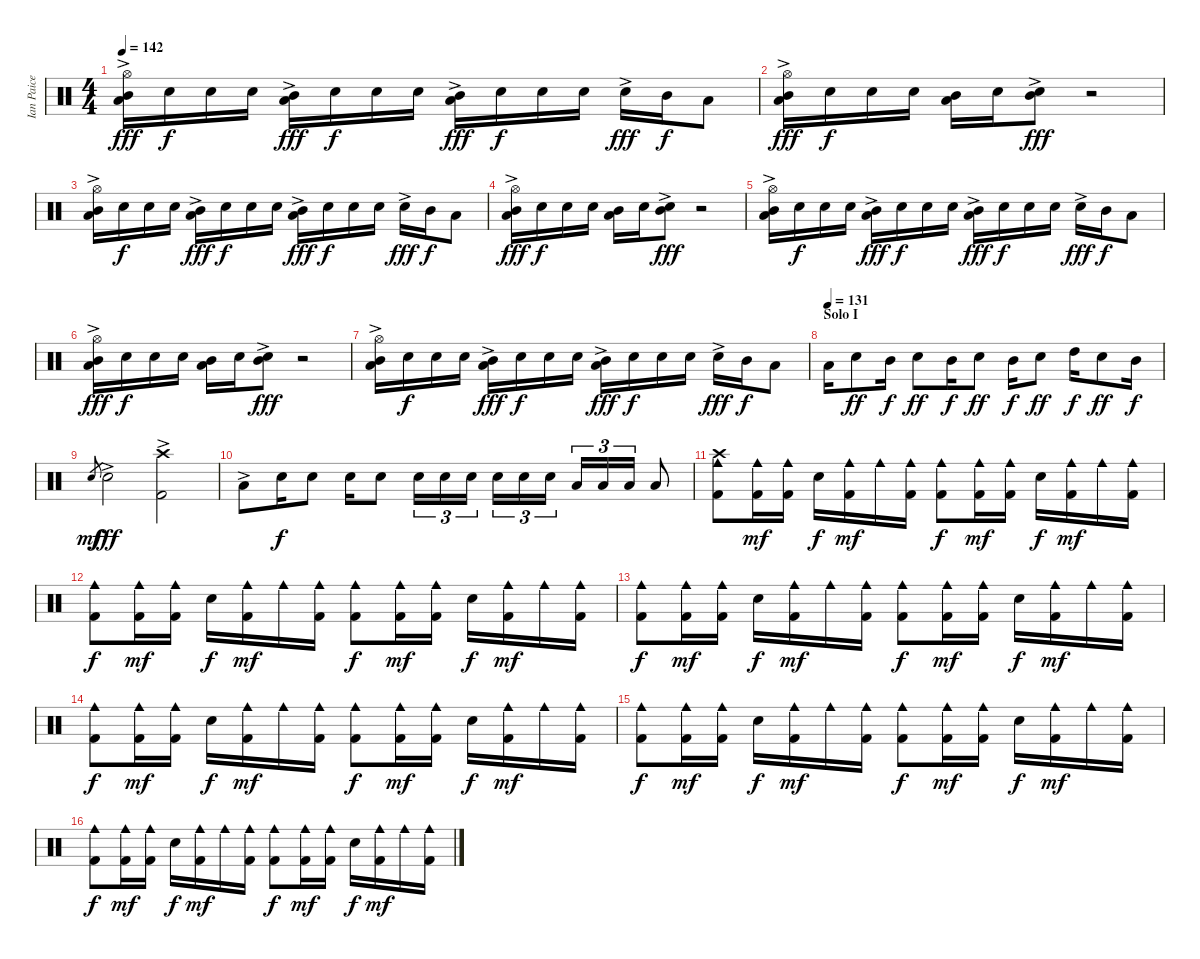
\track ("Ian Paice" "Ian Paice") {instrument percussion}
\staff {score}
\articulation defaults
\ts (4 4)
\tempo 142
\clef neutral
\ks c
("Hi-Hat (open)" "Mid Tom (hit)"{ac} "Low Floor Tom (hit)").16{dy fff} "Snare (hit) 2".16{dy f} "Snare (hit) 2".16 "Snare (hit) 2".16 ("Mid Tom (hit)"{ac} "Low Floor Tom (hit)").16{dy fff} "Snare (hit) 2".16{dy f} "Snare (hit) 2".16 "Snare (hit) 2".16 ("Mid Tom (hit)"{ac} "Low Floor Tom (hit)").16{dy fff} "Snare (hit) 2".16{dy f} "Snare (hit) 2".16 "Snare (hit) 2".16 "Electric Snare (hit)"{ac}.16{dy fff} "Mid Tom (hit)".16{dy f} "Low Tom (hit)".8 |
("Hi-Hat (open)" "Mid Tom (hit)"{ac} "Low Floor Tom (hit)").16{dy fff} "Snare (hit) 2".16{dy f} "Snare (hit) 2".16 "Snare (hit) 2".16 ("Mid Tom (hit)" "Low Floor Tom (hit)").16 "Snare (hit) 2".16 ("Mid Tom (hit)"{ac} "Electric Snare (hit)").8{dy fff} r.2 |
("Hi-Hat (open)" "Mid Tom (hit)"{ac} "Low Floor Tom (hit)").16 "Snare (hit) 2".16{dy f} "Snare (hit) 2".16 "Snare (hit) 2".16 ("Mid Tom (hit)"{ac} "Low Floor Tom (hit)").16{dy fff} "Snare (hit) 2".16{dy f} "Snare (hit) 2".16 "Snare (hit) 2".16 ("Mid Tom (hit)"{ac} "Low Floor Tom (hit)").16{dy fff} "Snare (hit) 2".16{dy f} "Snare (hit) 2".16 "Snare (hit) 2".16 "Electric Snare (hit)"{ac}.16{dy fff} "Mid Tom (hit)".16{dy f} "Low Tom (hit)".8 |
("Hi-Hat (open)" "Mid Tom (hit)"{ac} "Low Floor Tom (hit)").16{dy fff} "Snare (hit) 2".16{dy f} "Snare (hit) 2".16 "Snare (hit) 2".16 ("Mid Tom (hit)" "Low Floor Tom (hit)").16 "Snare (hit) 2".16 ("Mid Tom (hit)"{ac} "Electric Snare (hit)").8{dy fff} r.2 |
("Hi-Hat (open)" "Mid Tom (hit)"{ac} "Low Floor Tom (hit)").16 "Snare (hit) 2".16{dy f} "Snare (hit) 2".16 "Snare (hit) 2".16 ("Mid Tom (hit)"{ac} "Low Floor Tom (hit)").16{dy fff} "Snare (hit) 2".16{dy f} "Snare (hit) 2".16 "Snare (hit) 2".16 ("Mid Tom (hit)"{ac} "Low Floor Tom (hit)").16{dy fff} "Snare (hit) 2".16{dy f} "Snare (hit) 2".16 "Snare (hit) 2".16 "Electric Snare (hit)"{ac}.16{dy fff} "Mid Tom (hit)".16{dy f} "Low Tom (hit)".8 |
("Hi-Hat (open)" "Mid Tom (hit)"{ac} "Low Floor Tom (hit)").16{dy fff} "Snare (hit) 2".16{dy f} "Snare (hit) 2".16 "Snare (hit) 2".16 ("Mid Tom (hit)" "Low Floor Tom (hit)").16 "Snare (hit) 2".16 ("Mid Tom (hit)"{ac} "Electric Snare (hit)").8{dy fff} r.2 |
("Hi-Hat (open)" "Mid Tom (hit)"{ac} "Low Floor Tom (hit)").16 "Snare (hit) 2".16{dy f} "Snare (hit) 2".16 "Snare (hit) 2".16 ("Mid Tom (hit)"{ac} "Low Floor Tom (hit)").16{dy fff} "Snare (hit) 2".16{dy f} "Snare (hit) 2".16 "Snare (hit) 2".16 ("Mid Tom (hit)"{ac} "Low Floor Tom (hit)").16{dy fff} "Snare (hit) 2".16{dy f} "Snare (hit) 2".16 "Snare (hit) 2".16 "Electric Snare (hit)"{ac}.16{dy fff} "Mid Tom (hit)".16{dy f} "Low Tom (hit)".8 |
\section ("" "Solo I")
\tempo (131)
"Low Tom (hit)".16 "Snare (hit) 2".8{dy ff} "Mid Tom (hit)".16{dy f} "Snare (hit) 2".8{dy ff} "Mid Tom (hit)".16{dy f} "Snare (hit) 2".8{dy ff} "Mid Tom (hit)".16{dy f} "Snare (hit) 2".8{dy ff} "High Tom (hit)".16{dy f} "Snare (hit) 2".8{dy ff} "Mid Tom (hit)".16{dy f} |
"Snare (hit) 2".8{gr dy mf} "Snare (hit) 2"{ac}.2{dy fff} ("Crash high (hit)"{ac} "Kick (hit) 2"{ac}).2 |
"Low Tom (hit)"{ac}.8 "Snare (hit) 2".16{dy f} "Snare (hit) 2".8 "Snare (hit) 2".16 "Snare (hit) 2".8 "Snare (hit) 2".16{tu (3 2)} "Snare (hit) 2".16{tu (3 2)} "Snare (hit) 2".16{tu (3 2)} "Snare (hit) 2".16{tu (3 2)} "Snare (hit) 2".16{tu (3 2)} "Snare (hit) 2".16{tu (3 2)} "Low Tom (hit)".16{tu (3 2)} "Low Tom (hit)".16{tu (3 2)} "Low Tom (hit)".16{tu (3 2)} "Low Floor Tom (hit)".8 |
("Crash high (hit)" "Cowbell medium (hit)" "Kick (hit) 2").8 ("Cowbell medium (hit)" "Kick (hit) 2").16{dy mf} ("Cowbell medium (hit)" "Kick (hit) 2").16 "Snare (hit) 2".16{dy f} ("Cowbell medium (hit)" "Kick (hit) 2").16{dy mf} "Cowbell medium (hit)".16 ("Cowbell medium (hit)" "Kick (hit) 2").16 ("Cowbell medium (hit)" "Kick (hit) 2").8{dy f} ("Cowbell medium (hit)" "Kick (hit) 2").16{dy mf} ("Cowbell medium (hit)" "Kick (hit) 2").16 "Snare (hit) 2".16{dy f} ("Cowbell medium (hit)" "Kick (hit) 2").16{dy mf} "Cowbell medium (hit)".16 ("Cowbell medium (hit)" "Kick (hit) 2").16 |
("Cowbell medium (hit)" "Kick (hit) 2").8{dy f} ("Cowbell medium (hit)" "Kick (hit) 2").16{dy mf} ("Cowbell medium (hit)" "Kick (hit) 2").16 "Snare (hit) 2".16{dy f} ("Cowbell medium (hit)" "Kick (hit) 2").16{dy mf} "Cowbell medium (hit)".16 ("Cowbell medium (hit)" "Kick (hit) 2").16 ("Cowbell medium (hit)" "Kick (hit) 2").8{dy f} ("Cowbell medium (hit)" "Kick (hit) 2").16{dy mf} ("Cowbell medium (hit)" "Kick (hit) 2").16 "Snare (hit) 2".16{dy f} ("Cowbell medium (hit)" "Kick (hit) 2").16{dy mf} "Cowbell medium (hit)".16 ("Cowbell medium (hit)" "Kick (hit) 2").16 |
("Cowbell medium (hit)" "Kick (hit) 2").8{dy f} ("Cowbell medium (hit)" "Kick (hit) 2").16{dy mf} ("Cowbell medium (hit)" "Kick (hit) 2").16 "Snare (hit) 2".16{dy f} ("Cowbell medium (hit)" "Kick (hit) 2").16{dy mf} "Cowbell medium (hit)".16 ("Cowbell medium (hit)" "Kick (hit) 2").16 ("Cowbell medium (hit)" "Kick (hit) 2").8{dy f} ("Cowbell medium (hit)" "Kick (hit) 2").16{dy mf} ("Cowbell medium (hit)" "Kick (hit) 2").16 "Snare (hit) 2".16{dy f} ("Cowbell medium (hit)" "Kick (hit) 2").16{dy mf} "Cowbell medium (hit)".16 ("Cowbell medium (hit)" "Kick (hit) 2").16 |
("Cowbell medium (hit)" "Kick (hit) 2").8{dy f} ("Cowbell medium (hit)" "Kick (hit) 2").16{dy mf} ("Cowbell medium (hit)" "Kick (hit) 2").16 "Snare (hit) 2".16{dy f} ("Cowbell medium (hit)" "Kick (hit) 2").16{dy mf} "Cowbell medium (hit)".16 ("Cowbell medium (hit)" "Kick (hit) 2").16 ("Cowbell medium (hit)" "Kick (hit) 2").8{dy f} ("Cowbell medium (hit)" "Kick (hit) 2").16{dy mf} ("Cowbell medium (hit)" "Kick (hit) 2").16 "Snare (hit) 2".16{dy f} ("Cowbell medium (hit)" "Kick (hit) 2").16{dy mf} "Cowbell medium (hit)".16 ("Cowbell medium (hit)" "Kick (hit) 2").16 |
("Cowbell medium (hit)" "Kick (hit) 2").8{dy f} ("Cowbell medium (hit)" "Kick (hit) 2").16{dy mf} ("Cowbell medium (hit)" "Kick (hit) 2").16 "Snare (hit) 2".16{dy f} ("Cowbell medium (hit)" "Kick (hit) 2").16{dy mf} "Cowbell medium (hit)".16 ("Cowbell medium (hit)" "Kick (hit) 2").16 ("Cowbell medium (hit)" "Kick (hit) 2").8{dy f} ("Cowbell medium (hit)" "Kick (hit) 2").16{dy mf} ("Cowbell medium (hit)" "Kick (hit) 2").16 "Snare (hit) 2".16{dy f} ("Cowbell medium (hit)" "Kick (hit) 2").16{dy mf} "Cowbell medium (hit)".16 ("Cowbell medium (hit)" "Kick (hit) 2").16 |
("Cowbell medium (hit)" "Kick (hit) 2").8{dy f} ("Cowbell medium (hit)" "Kick (hit) 2").16{dy mf} ("Cowbell medium (hit)" "Kick (hit) 2").16 "Snare (hit) 2".16{dy f} ("Cowbell medium (hit)" "Kick (hit) 2").16{dy mf} "Cowbell medium (hit)".16 ("Cowbell medium (hit)" "Kick (hit) 2").16 ("Cowbell medium (hit)" "Kick (hit) 2").8{dy f} ("Cowbell medium (hit)" "Kick (hit) 2").16{dy mf} ("Cowbell medium (hit)" "Kick (hit) 2").16 "Snare (hit) 2".16{dy f} ("Cowbell medium (hit)" "Kick (hit) 2").16{dy mf} "Cowbell medium (hit)".16 ("Cowbell medium (hit)" "Kick (hit) 2").16
